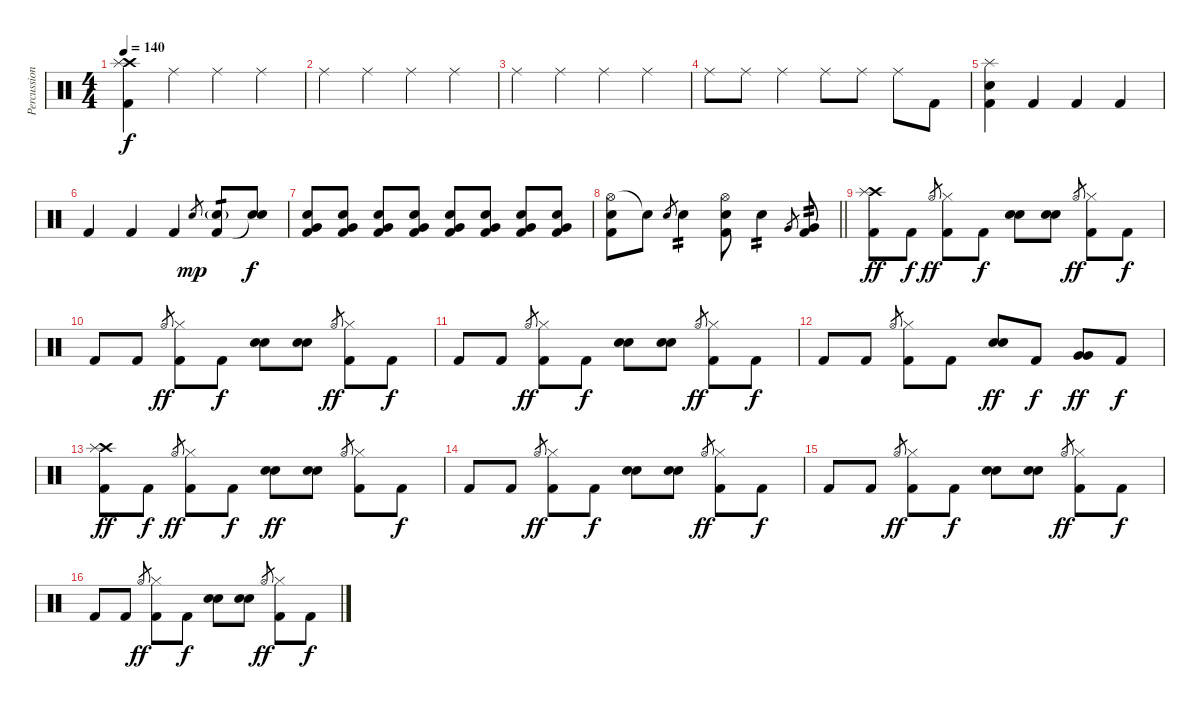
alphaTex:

\track ("Percussion" "Percussion") {instrument percussion}
\staff {score}
\articulation defaults
\ts (4 4)
\tempo 140
\clef neutral
\ks c
("Crash high (hit)" "Splash (hit)" "Kick (hit) 2").4{dy f} "Ride (middle)".4 "Ride (middle)".4 "Ride (middle)".4 |
"Ride (middle)".4 "Ride (middle)".4 "Ride (middle)".4 "Ride (middle)".4 |
"Ride (middle)".4 "Ride (middle)".4 "Ride (middle)".4 "Ride (middle)".4 |
"Ride (middle)".8 "Ride (middle)".8 "Ride (middle)".4 "Ride (middle)".8 "Ride (middle)".8 "Ride (middle)".8 "Kick (hit) 2".8 |
("Splash (hit)" "Electric Snare (hit)" "Kick (hit) 2").4 "Kick (hit) 2".4 "Kick (hit) 2".4 "Kick (hit) 2".4 |
"Kick (hit) 2".4 "Kick (hit) 2".4 "Kick (hit) 2".4 "Electric Snare (hit)".8{gr dy mp} ("Electric Snare (hit)"{g} "Kick (hit) 2").8{tp 1} ("Electric Snare (hit)" "Snare (hit)"{t}).8{dy f} |
("Electric Snare (hit)" "Very Low Tom (hit)" "Kick (hit) 2").8 ("Electric Snare (hit)" "Very Low Tom (hit)" "Kick (hit) 2").8 ("Electric Snare (hit)" "Very Low Tom (hit)" "Kick (hit) 2").8 ("Electric Snare (hit)" "Very Low Tom (hit)" "Kick (hit) 2").8 ("Electric Snare (hit)" "Very Low Tom (hit)" "Kick (hit) 2").8 ("Electric Snare (hit)" "Very Low Tom (hit)" "Kick (hit) 2").8 ("Electric Snare (hit)" "Very Low Tom (hit)" "Kick (hit) 2").8 ("Electric Snare (hit)" "Very Low Tom (hit)" "Kick (hit) 2").8 |
\barLineRight lightlight
("Hi-Hat (open)" "Electric Snare (hit)" "Kick (hit) 2").8 "Snare (hit)"{t}.8 "Electric Snare (hit)".8{gr} "Electric Snare (hit)".4{tp 2} ("Hi-Hat (open)" "Electric Snare (hit)" "Kick (hit) 2").8 "Electric Snare (hit)".4{tp 2} "Very Low Tom (hit)".8{gr} ("Very Low Tom (hit)" "Kick (hit) 2").8{tp 2} |
("Crash high (hit)" "Splash (hit)" "Kick (hit) 2").8{dy ff} "Kick (hit) 2".8{dy f} "Hi-Hat (open)".8{gr dy ff} ("Hi-Hat (closed)" "Kick (hit) 2").8 "Kick (hit) 2".8{dy f} ("Electric Snare (hit)" "Electric Snare (hit)").8 ("Electric Snare (hit)" "Electric Snare (hit)").8 "Hi-Hat (open)".8{gr dy ff} ("Hi-Hat (closed)" "Kick (hit) 2").8 "Kick (hit) 2".8{dy f} |
"Kick (hit) 2".8 "Kick (hit) 2".8 "Hi-Hat (open)".8{gr dy ff} ("Hi-Hat (closed)" "Kick (hit) 2").8 "Kick (hit) 2".8{dy f} ("Electric Snare (hit)" "Electric Snare (hit)").8 ("Electric Snare (hit)" "Electric Snare (hit)").8 "Hi-Hat (open)".8{gr dy ff} ("Hi-Hat (closed)" "Kick (hit) 2").8 "Kick (hit) 2".8{dy f} |
"Kick (hit) 2".8 "Kick (hit) 2".8 "Hi-Hat (open)".8{gr dy ff} ("Hi-Hat (closed)" "Kick (hit) 2").8 "Kick (hit) 2".8{dy f} ("Electric Snare (hit)" "Electric Snare (hit)").8 ("Electric Snare (hit)" "Electric Snare (hit)").8 "Hi-Hat (open)".8{gr dy ff} ("Hi-Hat (closed)" "Kick (hit) 2").8 "Kick (hit) 2".8{dy f} |
"Kick (hit) 2".8 "Kick (hit) 2".8 "Hi-Hat (open)".8{gr} ("Hi-Hat (closed)" "Kick (hit) 2").8 "Kick (hit) 2".8 ("Electric Snare (hit)" "Electric Snare (hit)").8{dy ff} "Kick (hit) 2".8{dy f} ("Very Low Tom (hit)" "Very Low Tom (hit)").8{dy ff} "Kick (hit) 2".8{dy f} |
("Crash high (hit)" "Splash (hit)" "Kick (hit) 2").8{dy ff} "Kick (hit) 2".8{dy f} "Hi-Hat (open)".8{gr dy ff} ("Hi-Hat (closed)" "Kick (hit) 2").8 "Kick (hit) 2".8{dy f} ("Electric Snare (hit)" "Electric Snare (hit)").8{dy ff} ("Electric Snare (hit)" "Electric Snare (hit)").8 "Hi-Hat (open)".8{gr} ("Hi-Hat (closed)" "Kick (hit) 2").8 "Kick (hit) 2".8{dy f} |
"Kick (hit) 2".8 "Kick (hit) 2".8 "Hi-Hat (open)".8{gr dy ff} ("Hi-Hat (closed)" "Kick (hit) 2").8 "Kick (hit) 2".8{dy f} ("Electric Snare (hit)" "Electric Snare (hit)").8 ("Electric Snare (hit)" "Electric Snare (hit)").8 "Hi-Hat (open)".8{gr dy ff} ("Hi-Hat (closed)" "Kick (hit) 2").8 "Kick (hit) 2".8{dy f} |
"Kick (hit) 2".8 "Kick (hit) 2".8 "Hi-Hat (open)".8{gr dy ff} ("Hi-Hat (closed)" "Kick (hit) 2").8 "Kick (hit) 2".8{dy f} ("Electric Snare (hit)" "Electric Snare (hit)").8 ("Electric Snare (hit)" "Electric Snare (hit)").8 "Hi-Hat (open)".8{gr dy ff} ("Hi-Hat (closed)" "Kick (hit) 2").8 "Kick (hit) 2".8{dy f} |
"Kick (hit) 2".8 "Kick (hit) 2".8 "Hi-Hat (open)".8{gr dy ff} ("Hi-Hat (closed)" "Kick (hit) 2").8 "Kick (hit) 2".8{dy f} ("Electric Snare (hit)" "Electric Snare (hit)").8 ("Electric Snare (hit)" "Electric Snare (hit)").8 "Hi-Hat (open)".8{gr dy ff} ("Hi-Hat (closed)" "Kick (hit) 2").8 "Kick (hit) 2".8{dy f}
